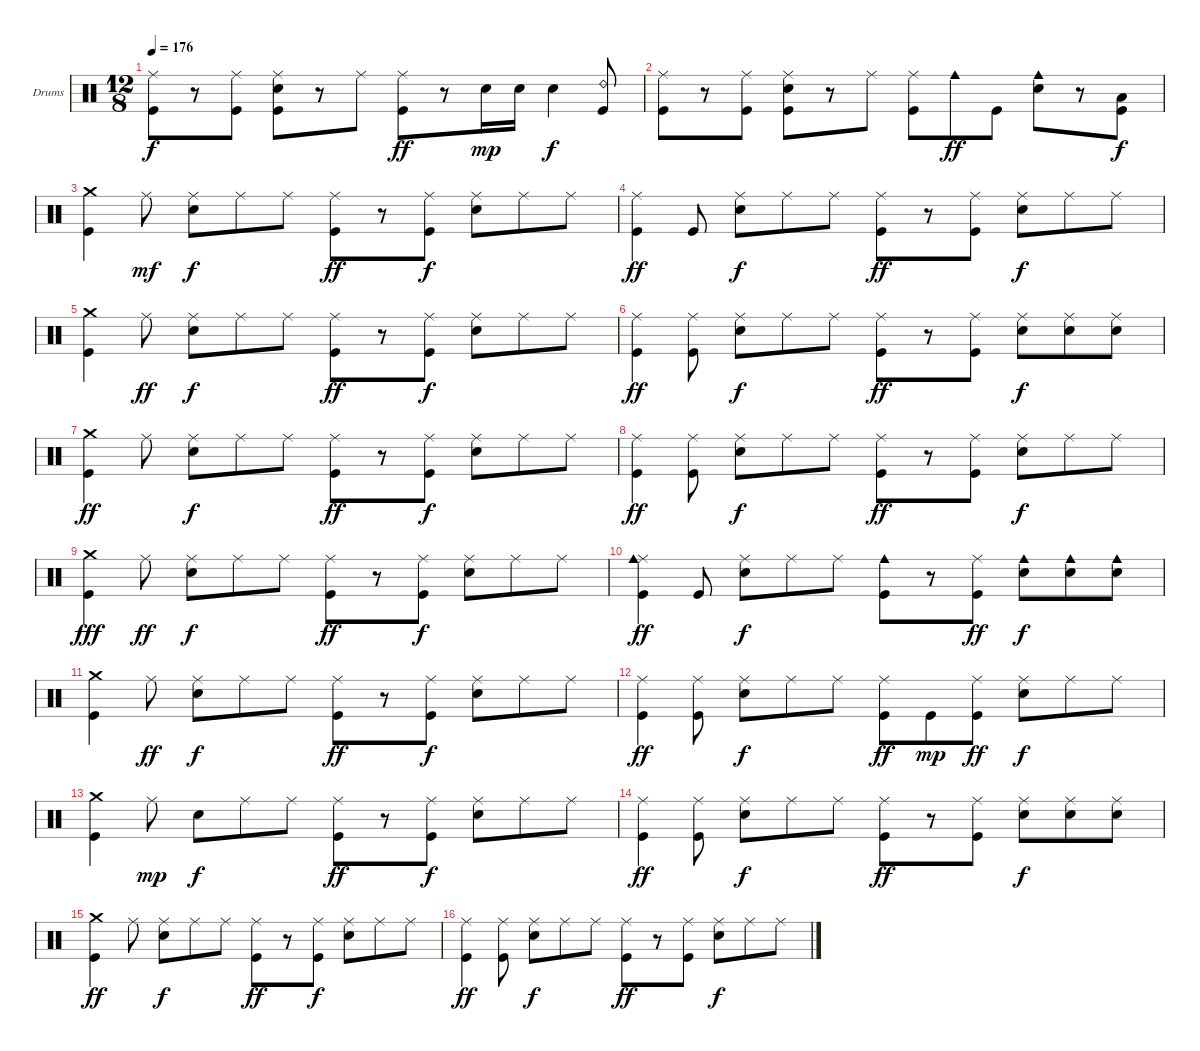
\defaultSystemsLayout 4
\bracketExtendMode groupsimilarinstruments
\firstSystemTrackNameOrientation horizontal
\otherSystemsTrackNameOrientation horizontal
\track ("Drumkit" "Drums") {instrument percussion}
\staff {score}
\articulation defaults
\ts (12 8)
\tempo 176
\clef neutral
\scale
0.333333
\ks c
("Ride (middle)" "Kick (hit)").8{dy f} r.8 ("Ride (middle)" "Kick (hit)").8 ("Ride (middle)" "Snare (hit) 2" "Kick (hit)").8 r.8 "Ride (middle)".8 ("Ride (middle)" "Kick (hit)").8{dy ff} r.8 "Snare (hit) 2".16{dy mp} "Snare (hit) 2".16 "Snare (hit) 2".4{dy f} ("Ride (bell) 2" "Kick (hit)").8 |
\scale
0.333333 ("Ride (middle)" "Kick (hit)").8 r.8 ("Ride (middle)" "Kick (hit)").8 ("Ride (middle)" "Snare (hit) 2" "Kick (hit)").8 r.8 "Ride (middle)".8 ("Ride (middle)" "Kick (hit)").8 "Cowbell medium (hit)".8{dy ff} "Kick (hit)".8 ("Cowbell medium (hit)" "Snare (hit) 2").8 r.8 ("Low Tom (hit)" "Kick (hit)").8{dy f} |
\scale
0.333333 ("Crash medium (hit)" "Kick (hit)").4 "Ride (middle)".8{dy mf} ("Ride (middle)" "Snare (hit) 2").8{dy f} "Ride (middle)".8 "Ride (middle)".8 ("Ride (middle)" "Kick (hit)").8{dy ff} r.8 ("Ride (middle)" "Kick (hit)").8{dy f} ("Ride (middle)" "Snare (hit) 2").8 "Ride (middle)".8 "Ride (middle)".8 |
\scale
0.333333 ("Ride (middle)" "Kick (hit)").4{dy ff} "Kick (hit)".8 ("Ride (middle)" "Snare (hit) 2").8{dy f} "Ride (middle)".8 "Ride (middle)".8 ("Ride (middle)" "Kick (hit)").8{dy ff} r.8 ("Ride (middle)" "Kick (hit)").8 ("Ride (middle)" "Snare (hit) 2").8{dy f} "Ride (middle)".8 "Ride (middle)".8 |
\scale
0.333333 ("Crash medium (hit)" "Kick (hit)").4 "Ride (middle)".8{dy ff} ("Ride (middle)" "Snare (hit) 2").8{dy f} "Ride (middle)".8 "Ride (middle)".8 ("Ride (middle)" "Kick (hit)").8{dy ff} r.8 ("Ride (middle)" "Kick (hit)").8{dy f} ("Ride (middle)" "Snare (hit) 2").8 "Ride (middle)".8 "Ride (middle)".8 |
\scale
0.333333 ("Ride (middle)" "Kick (hit)").4{dy ff} ("Ride (middle)" "Kick (hit)").8 ("Ride (middle)" "Snare (hit) 2").8{dy f} "Ride (middle)".8 "Ride (middle)".8 ("Ride (middle)" "Kick (hit)").8{dy ff} r.8 ("Ride (middle)" "Kick (hit)").8 ("Ride (middle)" "Snare (hit) 2").8{dy f} ("Ride (middle)" "Snare (hit) 2").8 ("Ride (middle)" "Snare (hit) 2").8 |
\scale
0.333333 ("Crash medium (hit)" "Kick (hit)").4{dy ff} "Ride (middle)".8 ("Ride (middle)" "Snare (hit) 2").8{dy f} "Ride (middle)".8 "Ride (middle)".8 ("Ride (middle)" "Kick (hit)").8{dy ff} r.8 ("Ride (middle)" "Kick (hit)").8{dy f} ("Ride (middle)" "Snare (hit) 2").8 "Ride (middle)".8 "Ride (middle)".8 |
\scale
0.333333 ("Ride (middle)" "Kick (hit)").4{dy ff} ("Ride (middle)" "Kick (hit)").8 ("Ride (middle)" "Snare (hit) 2").8{dy f} "Ride (middle)".8 "Ride (middle)".8 ("Ride (middle)" "Kick (hit)").8{dy ff} r.8 ("Ride (middle)" "Kick (hit)").8 ("Ride (middle)" "Snare (hit) 2").8{dy f} "Ride (middle)".8 "Ride (middle)".8 |
\scale
0.333333 ("Crash medium (hit)" "Kick (hit)").4{dy fff} "Ride (middle)".8{dy ff} ("Ride (middle)" "Snare (hit) 2").8{dy f} "Ride (middle)".8 "Ride (middle)".8 ("Ride (middle)" "Kick (hit)").8{dy ff} r.8 ("Ride (middle)" "Kick (hit)").8{dy f} ("Ride (middle)" "Snare (hit) 2").8 "Ride (middle)".8 "Ride (middle)".8 |
\scale
0.333333 ("Ride (middle)" "Cowbell medium (hit)" "Kick (hit)").4{dy ff} "Kick (hit)".8 ("Ride (middle)" "Snare (hit) 2").8{dy f} "Ride (middle)".8 "Ride (middle)".8 ("Cowbell medium (hit)" "Kick (hit)").8 r.8 ("Ride (middle)" "Kick (hit)").8{dy ff} ("Cowbell medium (hit)" "Snare (hit) 2").8{dy f} ("Cowbell medium (hit)" "Snare (hit) 2").8 ("Cowbell medium (hit)" "Snare (hit) 2").8 |
\scale
0.333333 ("Crash medium (hit)" "Kick (hit)").4 "Ride (middle)".8{dy ff} ("Ride (middle)" "Snare (hit) 2").8{dy f} "Ride (middle)".8 "Ride (middle)".8 ("Ride (middle)" "Kick (hit)").8{dy ff} r.8 ("Ride (middle)" "Kick (hit)").8{dy f} ("Ride (middle)" "Snare (hit) 2").8 "Ride (middle)".8 "Ride (middle)".8 |
\scale
0.333333 ("Ride (middle)" "Kick (hit)").4{dy ff} ("Ride (middle)" "Kick (hit)").8 ("Ride (middle)" "Snare (hit) 2").8{dy f} "Ride (middle)".8 "Ride (middle)".8 ("Ride (middle)" "Kick (hit)").8{dy ff} "Kick (hit)".8{dy mp} ("Ride (middle)" "Kick (hit)").8{dy ff} ("Ride (middle)" "Snare (hit) 2").8{dy f} "Ride (middle)".8 "Ride (middle)".8 |
\scale
0.333333 ("Crash medium (hit)" "Kick (hit)").4 "Ride (middle)".8{dy mp} "Snare (hit) 2".8{dy f} "Ride (middle)".8 "Ride (middle)".8 ("Ride (middle)" "Kick (hit)").8{dy ff} r.8 ("Ride (middle)" "Kick (hit)").8{dy f} ("Ride (middle)" "Snare (hit) 2").8 "Ride (middle)".8 "Ride (middle)".8 |
\scale
0.333333 ("Ride (middle)" "Kick (hit)").4{dy ff} ("Ride (middle)" "Kick (hit)").8 ("Ride (middle)" "Snare (hit) 2").8{dy f} "Ride (middle)".8 "Ride (middle)".8 ("Ride (middle)" "Kick (hit)").8{dy ff} r.8 ("Ride (middle)" "Kick (hit)").8 ("Ride (middle)" "Snare (hit) 2").8{dy f} ("Ride (middle)" "Snare (hit) 2").8 ("Ride (middle)" "Snare (hit) 2").8 |
\scale
0.333333 ("Crash medium (hit)" "Kick (hit)").4{dy ff} "Ride (middle)".8 ("Ride (middle)" "Snare (hit) 2").8{dy f} "Ride (middle)".8 "Ride (middle)".8 ("Ride (middle)" "Kick (hit)").8{dy ff} r.8 ("Ride (middle)" "Kick (hit)").8{dy f} ("Ride (middle)" "Snare (hit) 2").8 "Ride (middle)".8 "Ride (middle)".8 |
\scale
0.333333 ("Ride (middle)" "Kick (hit)").4{dy ff} ("Ride (middle)" "Kick (hit)").8 ("Ride (middle)" "Snare (hit) 2").8{dy f} "Ride (middle)".8 "Ride (middle)".8 ("Ride (middle)" "Kick (hit)").8{dy ff} r.8 ("Ride (middle)" "Kick (hit)").8 ("Ride (middle)" "Snare (hit) 2").8{dy f} "Ride (middle)".8 "Ride (middle)".8
